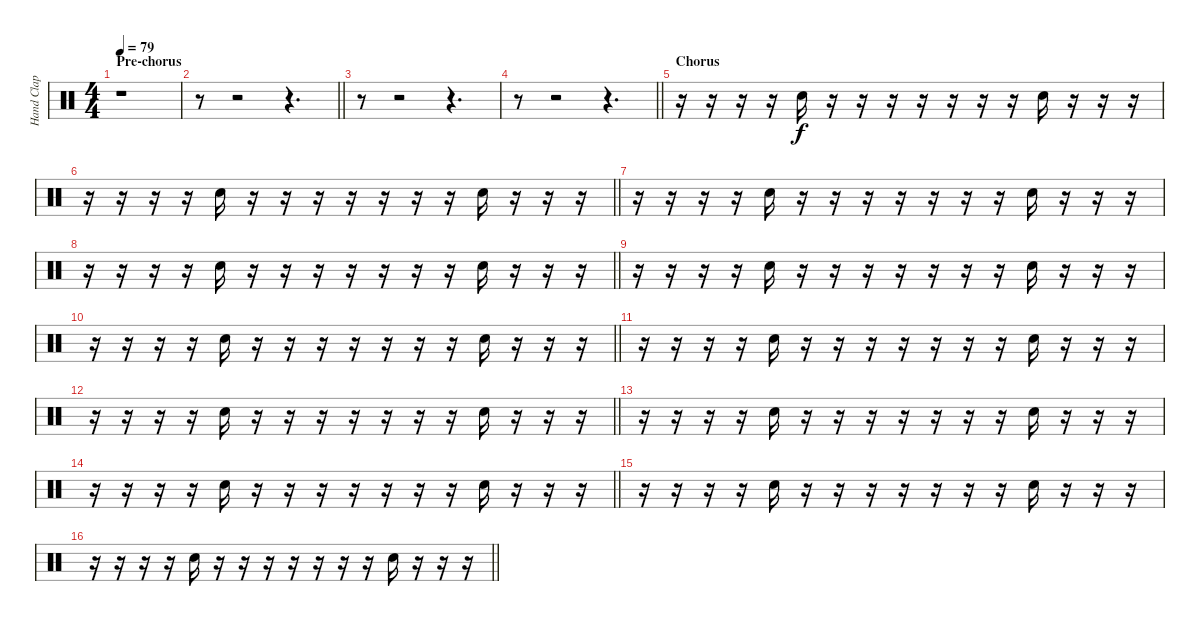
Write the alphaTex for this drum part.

\track ("Hand Clap" "Hand Clap") {instrument percussion}
\staff {score}
\articulation defaults
\ts (4 4)
\section ("" "Pre-chorus")
\tempo 79
\clef neutral
\ks c
r.1{dy f} |
\barLineRight lightlight
r.8 r.2 r.4{d} |
r.8 r.2 r.4{d} |
\barLineRight lightlight
r.8 r.2 r.4{d} |
\section ("" "Chorus")
r.16 r.16 r.16 r.16 "Hand Clap (hit)".16 r.16 r.16 r.16 r.16 r.16 r.16 r.16 "Hand Clap (hit)".16 r.16 r.16 r.16 |
\barLineRight lightlight
r.16 r.16 r.16 r.16 "Hand Clap (hit)".16 r.16 r.16 r.16 r.16 r.16 r.16 r.16 "Hand Clap (hit)".16 r.16 r.16 r.16 |
r.16 r.16 r.16 r.16 "Hand Clap (hit)".16 r.16 r.16 r.16 r.16 r.16 r.16 r.16 "Hand Clap (hit)".16 r.16 r.16 r.16 |
\barLineRight lightlight
r.16 r.16 r.16 r.16 "Hand Clap (hit)".16 r.16 r.16 r.16 r.16 r.16 r.16 r.16 "Hand Clap (hit)".16 r.16 r.16 r.16 |
r.16 r.16 r.16 r.16 "Hand Clap (hit)".16 r.16 r.16 r.16 r.16 r.16 r.16 r.16 "Hand Clap (hit)".16 r.16 r.16 r.16 |
\barLineRight lightlight
r.16 r.16 r.16 r.16 "Hand Clap (hit)".16 r.16 r.16 r.16 r.16 r.16 r.16 r.16 "Hand Clap (hit)".16 r.16 r.16 r.16 |
r.16 r.16 r.16 r.16 "Hand Clap (hit)".16 r.16 r.16 r.16 r.16 r.16 r.16 r.16 "Hand Clap (hit)".16 r.16 r.16 r.16 |
\barLineRight lightlight
r.16 r.16 r.16 r.16 "Hand Clap (hit)".16 r.16 r.16 r.16 r.16 r.16 r.16 r.16 "Hand Clap (hit)".16 r.16 r.16 r.16 |
r.16 r.16 r.16 r.16 "Hand Clap (hit)".16 r.16 r.16 r.16 r.16 r.16 r.16 r.16 "Hand Clap (hit)".16 r.16 r.16 r.16 |
\barLineRight lightlight
r.16 r.16 r.16 r.16 "Hand Clap (hit)".16 r.16 r.16 r.16 r.16 r.16 r.16 r.16 "Hand Clap (hit)".16 r.16 r.16 r.16 |
r.16 r.16 r.16 r.16 "Hand Clap (hit)".16 r.16 r.16 r.16 r.16 r.16 r.16 r.16 "Hand Clap (hit)".16 r.16 r.16 r.16 |
\barLineRight lightlight
r.16 r.16 r.16 r.16 "Hand Clap (hit)".16 r.16 r.16 r.16 r.16 r.16 r.16 r.16 "Hand Clap (hit)".16 r.16 r.16 r.16
